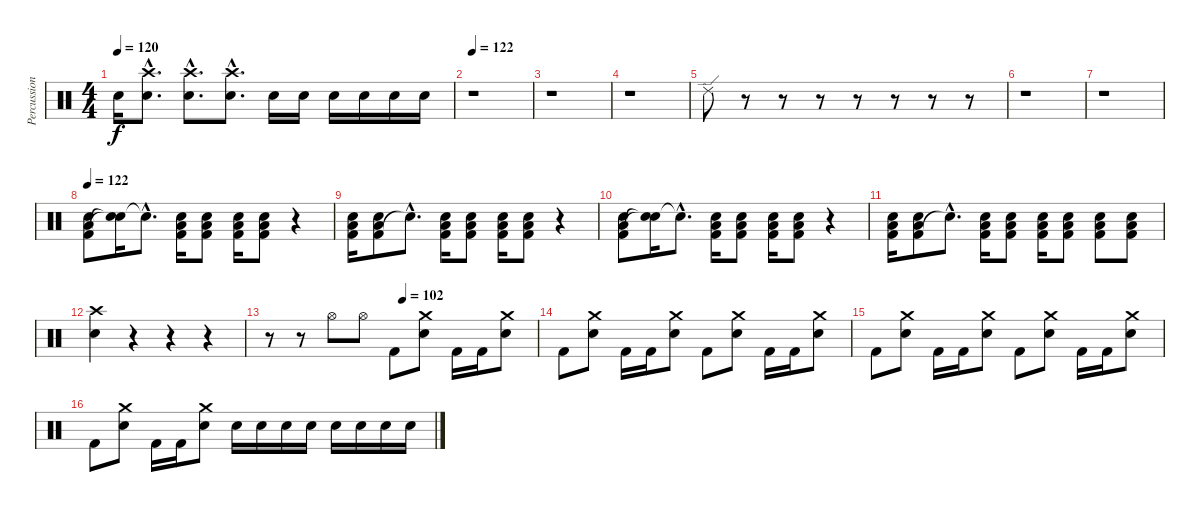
\track ("Percussions" "Percussion") {instrument percussion}
\staff {score}
\articulation defaults
\ts (4 4)
\tempo 120
\clef neutral
\ks c "Snare (hit) 2".16{dy f}
("Crash high (hit)"{hac} "Snare (hit) 2"{hac}).8{d} ("Crash high (hit)"{hac} "Snare (hit) 2"{hac}).8{d} ("Crash high (hit)"{hac} "Snare (hit) 2"{hac}).8{d} "Snare (hit) 2".16 "Snare (hit) 2".16 "Snare (hit) 2".16 "Snare (hit) 2".16 "Snare (hit) 2".16 "Snare (hit) 2".16 |
\tempo 122
r.1 |
r.1 |
r.1 |
"Ride (edge) 2".8 r.8 r.8 r.8 r.8 r.8 r.8 r.8 |
r.1 |
r.1 |
\tempo 122
("Kick (hit) 2" "Low Floor Tom (hit)" "Snare (hit) 2").8 ("Snare (hit)"{t} "Snare (hit)"{t}).16 "Snare (hit)"{hac t}.8{d} ("Kick (hit) 2" "Low Floor Tom (hit)" "Snare (hit) 2").16 ("Kick (hit) 2" "Low Floor Tom (hit)" "Snare (hit) 2").8 ("Kick (hit) 2" "Low Floor Tom (hit)" "Snare (hit) 2").16 ("Kick (hit) 2" "Low Floor Tom (hit)" "Snare (hit) 2").8 r.4 |
("Kick (hit) 2" "Low Floor Tom (hit)" "Snare (hit) 2").16 ("Kick (hit) 2" "Low Floor Tom (hit)" "Snare (hit) 2").8 "Snare (hit)"{hac t}.8{d} ("Kick (hit) 2" "Low Floor Tom (hit)" "Snare (hit) 2").16 ("Kick (hit) 2" "Low Floor Tom (hit)" "Snare (hit) 2").8 ("Kick (hit) 2" "Low Floor Tom (hit)" "Snare (hit) 2").16 ("Kick (hit) 2" "Low Floor Tom (hit)" "Snare (hit) 2").8 r.4 |
("Kick (hit) 2" "Low Floor Tom (hit)" "Snare (hit) 2").8 ("Snare (hit)"{t} "Snare (hit)"{t}).16 "Snare (hit)"{hac t}.8{d} ("Kick (hit) 2" "Low Floor Tom (hit)" "Snare (hit) 2").16 ("Kick (hit) 2" "Low Floor Tom (hit)" "Snare (hit) 2").8 ("Kick (hit) 2" "Low Floor Tom (hit)" "Snare (hit) 2").16 ("Kick (hit) 2" "Low Floor Tom (hit)" "Snare (hit) 2").8 r.4 |
("Kick (hit) 2" "Low Floor Tom (hit)" "Snare (hit) 2").16 ("Kick (hit) 2" "Low Floor Tom (hit)" "Snare (hit) 2").8 "Snare (hit)"{hac t}.8{d} ("Kick (hit) 2" "Low Floor Tom (hit)" "Snare (hit) 2").16 ("Kick (hit) 2" "Low Floor Tom (hit)" "Snare (hit) 2").8 ("Kick (hit) 2" "Low Floor Tom (hit)" "Snare (hit) 2").16 ("Kick (hit) 2" "Low Floor Tom (hit)" "Snare (hit) 2").8 ("Kick (hit) 2" "Low Floor Tom (hit)" "Snare (hit) 2").8 ("Kick (hit) 2" "Low Floor Tom (hit)" "Snare (hit) 2").8 |
("Crash high (hit)" "Snare (hit) 2").4 r.4 r.4 r.4 |
\tempo (102 0.5)
r.8 r.8 "Hi-Hat (open)".8 "Hi-Hat (open)".8 "Kick (hit) 2".8 ("Crash medium (hit)" "Snare (hit) 2").8 "Kick (hit) 2".16 "Kick (hit) 2".16 ("Crash medium (hit)" "Snare (hit) 2").8 |
"Kick (hit) 2".8 ("Crash medium (hit)" "Snare (hit) 2").8 "Kick (hit) 2".16 "Kick (hit) 2".16 ("Crash medium (hit)" "Snare (hit) 2").8 "Kick (hit) 2".8 ("Crash medium (hit)" "Snare (hit) 2").8 "Kick (hit) 2".16 "Kick (hit) 2".16 ("Crash medium (hit)" "Snare (hit) 2").8 |
"Kick (hit) 2".8 ("Crash medium (hit)" "Snare (hit) 2").8 "Kick (hit) 2".16 "Kick (hit) 2".16 ("Crash medium (hit)" "Snare (hit) 2").8 "Kick (hit) 2".8 ("Crash medium (hit)" "Snare (hit) 2").8 "Kick (hit) 2".16 "Kick (hit) 2".16 ("Crash medium (hit)" "Snare (hit) 2").8 |
"Kick (hit) 2".8 ("Crash medium (hit)" "Snare (hit) 2").8 "Kick (hit) 2".16 "Kick (hit) 2".16 ("Crash medium (hit)" "Snare (hit) 2").8 "Snare (hit) 2".16 "Snare (hit) 2".16 "Snare (hit) 2".16 "Snare (hit) 2".16 "Snare (hit) 2".16 "Snare (hit) 2".16 "Snare (hit) 2".16 "Snare (hit) 2".16
